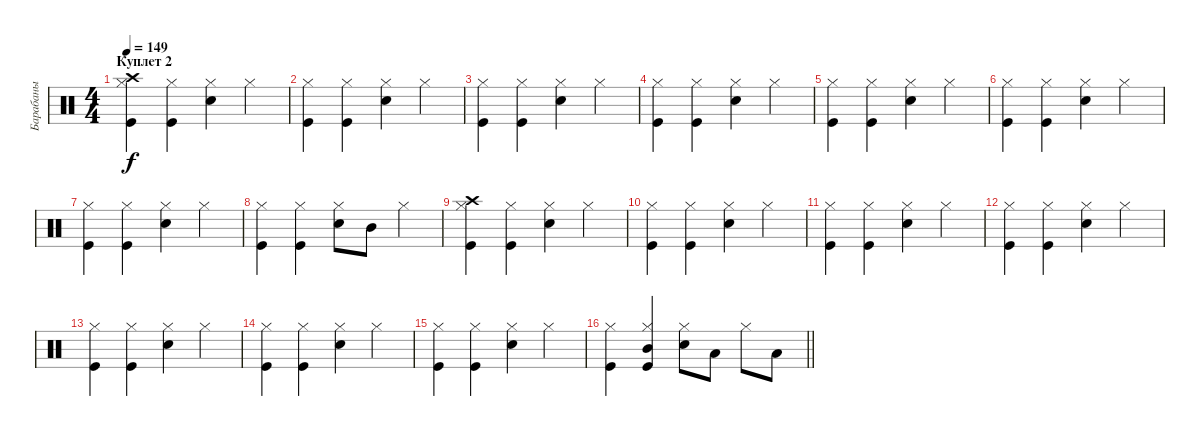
\track ("Барабаны" "Барабаны") {instrument percussion}
\staff {score}
\articulation defaults
\ts (4 4)
\section ("" "Куплет 2")
\tempo 149
\clef neutral
\ks c
("Kick (hit)" "Hi-Hat (closed)" "Crash high (hit)").4{dy f} ("Kick (hit)" "Hi-Hat (closed)").4 ("Snare (hit) 2" "Hi-Hat (closed)").4 "Hi-Hat (closed)".4 |
("Kick (hit)" "Hi-Hat (closed)").4 ("Kick (hit)" "Hi-Hat (closed)").4 ("Snare (hit) 2" "Hi-Hat (closed)").4 "Hi-Hat (closed)".4 |
("Kick (hit)" "Hi-Hat (closed)").4 ("Kick (hit)" "Hi-Hat (closed)").4 ("Snare (hit) 2" "Hi-Hat (closed)").4 "Hi-Hat (closed)".4 |
("Kick (hit)" "Hi-Hat (closed)").4 ("Kick (hit)" "Hi-Hat (closed)").4 ("Snare (hit) 2" "Hi-Hat (closed)").4 "Hi-Hat (closed)".4 |
("Kick (hit)" "Hi-Hat (closed)").4 ("Kick (hit)" "Hi-Hat (closed)").4 ("Snare (hit) 2" "Hi-Hat (closed)").4 "Hi-Hat (closed)".4 |
("Kick (hit)" "Hi-Hat (closed)").4 ("Kick (hit)" "Hi-Hat (closed)").4 ("Snare (hit) 2" "Hi-Hat (closed)").4 "Hi-Hat (closed)".4 |
("Kick (hit)" "Hi-Hat (closed)").4 ("Kick (hit)" "Hi-Hat (closed)").4 ("Snare (hit) 2" "Hi-Hat (closed)").4 "Hi-Hat (closed)".4 |
("Kick (hit)" "Hi-Hat (closed)").4 ("Kick (hit)" "Hi-Hat (closed)").4 ("Snare (hit) 2" "Hi-Hat (closed)").8 "Mid Tom (hit)".8 "Hi-Hat (closed)".4 |
("Kick (hit)" "Hi-Hat (closed)" "Crash high (hit)").4 ("Kick (hit)" "Hi-Hat (closed)").4 ("Snare (hit) 2" "Hi-Hat (closed)").4 "Hi-Hat (closed)".4 |
("Kick (hit)" "Hi-Hat (closed)").4 ("Kick (hit)" "Hi-Hat (closed)").4 ("Snare (hit) 2" "Hi-Hat (closed)").4 "Hi-Hat (closed)".4 |
("Kick (hit)" "Hi-Hat (closed)").4 ("Kick (hit)" "Hi-Hat (closed)").4 ("Snare (hit) 2" "Hi-Hat (closed)").4 "Hi-Hat (closed)".4 |
("Kick (hit)" "Hi-Hat (closed)").4 ("Kick (hit)" "Hi-Hat (closed)").4 ("Snare (hit) 2" "Hi-Hat (closed)").4 "Hi-Hat (closed)".4 |
("Kick (hit)" "Hi-Hat (closed)").4 ("Kick (hit)" "Hi-Hat (closed)").4 ("Snare (hit) 2" "Hi-Hat (closed)").4 "Hi-Hat (closed)".4 |
("Kick (hit)" "Hi-Hat (closed)").4 ("Kick (hit)" "Hi-Hat (closed)").4 ("Snare (hit) 2" "Hi-Hat (closed)").4 "Hi-Hat (closed)".4 |
("Kick (hit)" "Hi-Hat (closed)").4 ("Kick (hit)" "Hi-Hat (closed)").4 ("Snare (hit) 2" "Hi-Hat (closed)").4 "Hi-Hat (closed)".4 |
\barLineRight lightlight
("Kick (hit)" "Hi-Hat (closed)").4 ("Kick (hit)" "Hi-Hat (closed)" "Mid Tom (hit)").4 ("Snare (hit) 2" "Hi-Hat (closed)").8 "Low Tom (hit)".8 "Hi-Hat (closed)".8 "Low Tom (hit)".8
